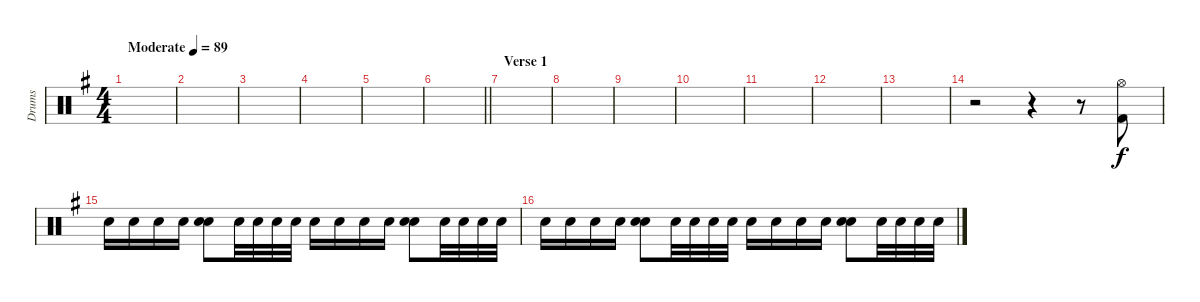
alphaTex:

\track ("Drums" "Drums") {instrument percussion}
\staff {score}
\articulation defaults
\ts (4 4)
\tempo (89 "Moderate")
\clef neutral
\ks g
|
|
|
|
|
\barLineRight lightlight
|
\section ("" "Verse 1")
|
|
|
|
|
|
|
r.2 r.4 r.8 ("Kick (hit) 2" "Hi-Hat (open)").8 |
"Electric Snare (hit)".16 "Electric Snare (hit)".16 "Electric Snare (hit)".16 "Electric Snare (hit)".16 ("Electric Snare (hit)" "Electric Snare (hit)").8 "Electric Snare (hit)".32 "Electric Snare (hit)".32 "Electric Snare (hit)".32 "Electric Snare (hit)".32 "Electric Snare (hit)".16 "Electric Snare (hit)".16 "Electric Snare (hit)".16 "Electric Snare (hit)".16 ("Electric Snare (hit)" "Electric Snare (hit)").8 "Electric Snare (hit)".32 "Electric Snare (hit)".32 "Electric Snare (hit)".32 "Electric Snare (hit)".32 |
"Electric Snare (hit)".16 "Electric Snare (hit)".16 "Electric Snare (hit)".16 "Electric Snare (hit)".16 ("Electric Snare (hit)" "Electric Snare (hit)").8 "Electric Snare (hit)".32 "Electric Snare (hit)".32 "Electric Snare (hit)".32 "Electric Snare (hit)".32 "Electric Snare (hit)".16 "Electric Snare (hit)".16 "Electric Snare (hit)".16 "Electric Snare (hit)".16 ("Electric Snare (hit)" "Electric Snare (hit)").8 "Electric Snare (hit)".32 "Electric Snare (hit)".32 "Electric Snare (hit)".32 "Electric Snare (hit)".32
